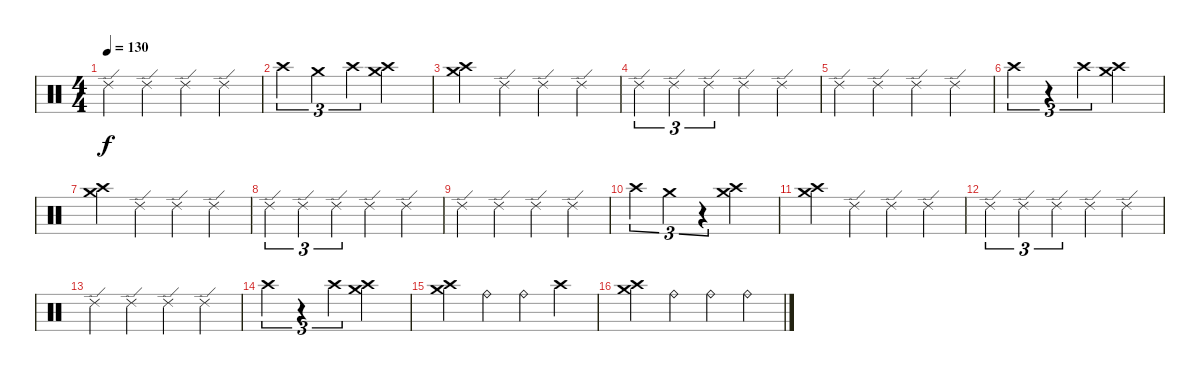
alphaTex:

\track "" {instrument percussion}
\staff {score}
\articulation defaults
\ts (4 4)
\tempo 130
\clef neutral
\ks c "Ride (edge) 2".4{dy f} "Ride (edge) 2".4 "Ride (edge) 2".4 "Ride (edge) 2".4
|
"Crash high (hit)".4{tu (3 2)} "Crash medium (hit)".4{tu (3 2)} "Crash high (hit)".4{tu (3 2)} ("Crash medium (hit)" "Crash high (hit)").2 |
("Crash medium (hit)" "Crash high (hit)").4 "Ride (edge) 2".4 "Ride (edge) 2".4 "Ride (edge) 2".4 |
"Ride (edge) 2".4{tu (3 2)} "Ride (edge) 2".4{tu (3 2)} "Ride (edge) 2".4{tu (3 2)} "Ride (edge) 2".4 "Ride (edge) 2".4 |
"Ride (edge) 2".4 "Ride (edge) 2".4 "Ride (edge) 2".4 "Ride (edge) 2".4 |
"Crash high (hit)".4{tu (3 2)} r.4{tu (3 2)} "Crash high (hit)".4{tu (3 2)} ("Crash medium (hit)" "Crash high (hit)").2 |
("Crash medium (hit)" "Crash high (hit)").4 "Ride (edge) 2".4 "Ride (edge) 2".4 "Ride (edge) 2".4 |
"Ride (edge) 2".4{tu (3 2)} "Ride (edge) 2".4{tu (3 2)} "Ride (edge) 2".4{tu (3 2)} "Ride (edge) 2".4 "Ride (edge) 2".4 |
"Ride (edge) 2".4 "Ride (edge) 2".4 "Ride (edge) 2".4 "Ride (edge) 2".4 |
"Crash high (hit)".4{tu (3 2)} "Crash medium (hit)".4{tu (3 2)} r.4{tu (3 2)} ("Crash medium (hit)" "Crash high (hit)").2 |
("Crash medium (hit)" "Crash high (hit)").4 "Ride (edge) 2".4 "Ride (edge) 2".4 "Ride (edge) 2".4 |
"Ride (edge) 2".4{tu (3 2)} "Ride (edge) 2".4{tu (3 2)} "Ride (edge) 2".4{tu (3 2)} "Ride (edge) 2".4 "Ride (edge) 2".4 |
"Ride (edge) 2".4 "Ride (edge) 2".4 "Ride (edge) 2".4 "Ride (edge) 2".4 |
"Crash high (hit)".4{tu (3 2)} r.4{tu (3 2)} "Crash high (hit)".4{tu (3 2)} ("Crash medium (hit)" "Crash high (hit)").2 |
("Crash medium (hit)" "Crash high (hit)").4 "Ride (bell)".4 "Ride (bell)".4 "Crash high (hit)".4 |
("Crash medium (hit)" "Crash high (hit)").4 "Ride (bell)".4 "Ride (bell)".4 "Ride (bell)".4
